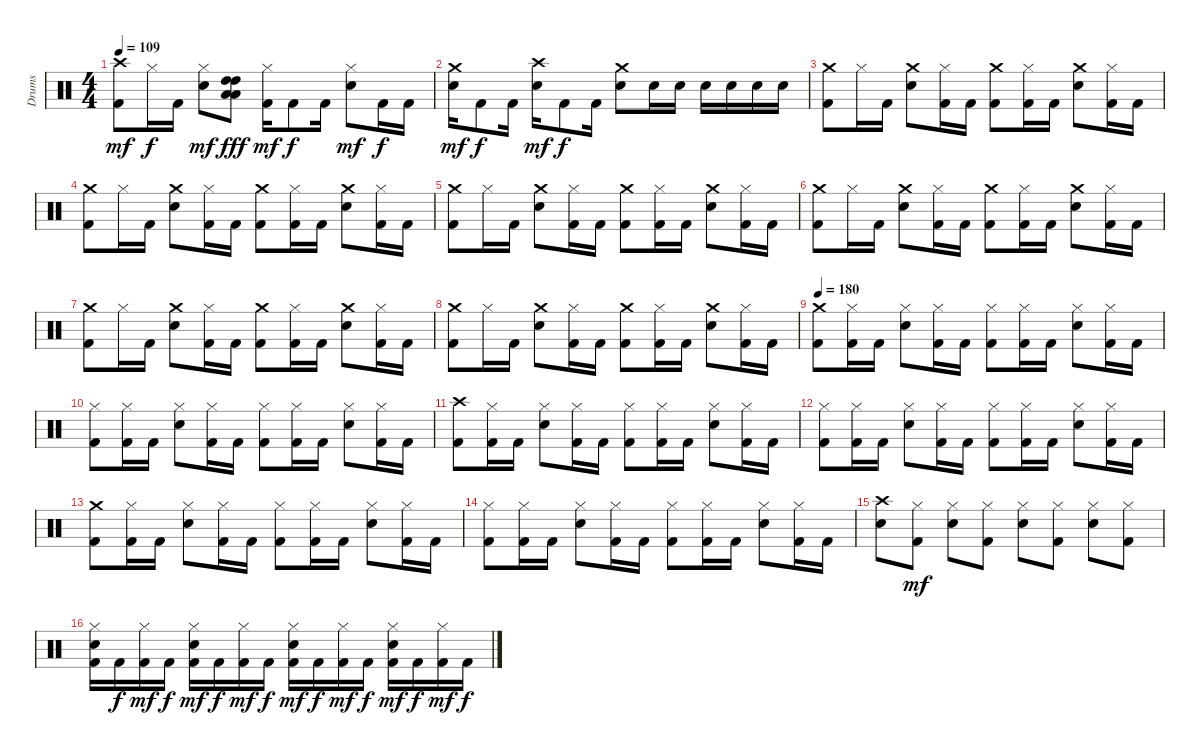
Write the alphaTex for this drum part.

\track ("Drums" "Drums") {instrument percussion}
\staff {score}
\articulation defaults
\ts (4 4)
\tempo 109
\clef neutral
\ks c
("Crash high (hit)" "Kick (hit) 2").8{dy mf} "Hi-Hat (closed)".16{dy f} "Kick (hit) 2".16 ("Hi-Hat (closed)" "Snare (hit) 2").8{dy mf} ("High Tom (hit)" "High Tom (hit)" "Low Tom (hit)" "Low Tom (hit)").8{dy fff} ("Hi-Hat (closed)" "Kick (hit) 2").16{dy mf} "Kick (hit) 2".8{dy f} "Kick (hit) 2".16 ("Hi-Hat (closed)" "Snare (hit) 2").8{dy mf} "Kick (hit) 2".16{dy f} "Kick (hit) 2".16 |
("Crash medium (hit)" "Snare (hit) 2").16{dy mf} "Kick (hit) 2".8{dy f} "Kick (hit) 2".16 ("Crash high (hit)" "Snare (hit) 2").16{dy mf} "Kick (hit) 2".8{dy f} "Kick (hit) 2".16 ("Crash medium (hit)" "Snare (hit) 2").8 "Snare (hit) 2".16 "Snare (hit) 2".16 "Snare (hit) 2".16 "Snare (hit) 2".16 "Snare (hit) 2".16 "Snare (hit) 2".16 |
("Crash medium (hit)" "Kick (hit) 2").8 "Hi-Hat (closed)".16 "Kick (hit) 2".16 ("Crash medium (hit)" "Snare (hit) 2").8 ("Hi-Hat (closed)" "Kick (hit) 2").16 "Kick (hit) 2".16 ("Crash medium (hit)" "Kick (hit) 2").8 ("Hi-Hat (closed)" "Kick (hit) 2").16 "Kick (hit) 2".16 ("Crash medium (hit)" "Snare (hit) 2").8 ("Hi-Hat (closed)" "Kick (hit) 2").16 "Kick (hit) 2".16 |
("Crash medium (hit)" "Kick (hit) 2").8 "Hi-Hat (closed)".16 "Kick (hit) 2".16 ("Crash medium (hit)" "Snare (hit) 2").8 ("Hi-Hat (closed)" "Kick (hit) 2").16 "Kick (hit) 2".16 ("Crash medium (hit)" "Kick (hit) 2").8 ("Hi-Hat (closed)" "Kick (hit) 2").16 "Kick (hit) 2".16 ("Crash medium (hit)" "Snare (hit) 2").8 ("Hi-Hat (closed)" "Kick (hit) 2").16 "Kick (hit) 2".16 |
("Crash medium (hit)" "Kick (hit) 2").8 "Hi-Hat (closed)".16 "Kick (hit) 2".16 ("Crash medium (hit)" "Snare (hit) 2").8 ("Hi-Hat (closed)" "Kick (hit) 2").16 "Kick (hit) 2".16 ("Crash medium (hit)" "Kick (hit) 2").8 ("Hi-Hat (closed)" "Kick (hit) 2").16 "Kick (hit) 2".16 ("Crash medium (hit)" "Snare (hit) 2").8 ("Hi-Hat (closed)" "Kick (hit) 2").16 "Kick (hit) 2".16 |
("Crash medium (hit)" "Kick (hit) 2").8 "Hi-Hat (closed)".16 "Kick (hit) 2".16 ("Crash medium (hit)" "Snare (hit) 2").8 ("Hi-Hat (closed)" "Kick (hit) 2").16 "Kick (hit) 2".16 ("Crash medium (hit)" "Kick (hit) 2").8 ("Hi-Hat (closed)" "Kick (hit) 2").16 "Kick (hit) 2".16 ("Crash medium (hit)" "Snare (hit) 2").8 ("Hi-Hat (closed)" "Kick (hit) 2").16 "Kick (hit) 2".16 |
("Crash medium (hit)" "Kick (hit) 2").8 "Hi-Hat (closed)".16 "Kick (hit) 2".16 ("Crash medium (hit)" "Snare (hit) 2").8 ("Hi-Hat (closed)" "Kick (hit) 2").16 "Kick (hit) 2".16 ("Crash medium (hit)" "Kick (hit) 2").8 ("Hi-Hat (closed)" "Kick (hit) 2").16 "Kick (hit) 2".16 ("Crash medium (hit)" "Snare (hit) 2").8 ("Hi-Hat (closed)" "Kick (hit) 2").16 "Kick (hit) 2".16 |
("Crash medium (hit)" "Kick (hit) 2").8 "Hi-Hat (closed)".16 "Kick (hit) 2".16 ("Crash medium (hit)" "Snare (hit) 2").8 ("Hi-Hat (closed)" "Kick (hit) 2").16 "Kick (hit) 2".16 ("Crash medium (hit)" "Kick (hit) 2").8 ("Hi-Hat (closed)" "Kick (hit) 2").16 "Kick (hit) 2".16 ("Crash medium (hit)" "Snare (hit) 2").8 ("Hi-Hat (closed)" "Kick (hit) 2").16 "Kick (hit) 2".16 |
\tempo 180
("Crash medium (hit)" "Kick (hit) 2").8 ("Hi-Hat (closed)" "Kick (hit) 2").16 "Kick (hit) 2".16 ("Hi-Hat (closed)" "Snare (hit) 2").8 ("Hi-Hat (closed)" "Kick (hit) 2").16 "Kick (hit) 2".16 ("Hi-Hat (closed)" "Kick (hit) 2").8 ("Hi-Hat (closed)" "Kick (hit) 2").16 "Kick (hit) 2".16 ("Hi-Hat (closed)" "Snare (hit) 2").8 ("Hi-Hat (closed)" "Kick (hit) 2").16 "Kick (hit) 2".16 |
("Hi-Hat (closed)" "Kick (hit) 2").8 ("Hi-Hat (closed)" "Kick (hit) 2").16 "Kick (hit) 2".16 ("Hi-Hat (closed)" "Snare (hit) 2").8 ("Hi-Hat (closed)" "Kick (hit) 2").16 "Kick (hit) 2".16 ("Hi-Hat (closed)" "Kick (hit) 2").8 ("Hi-Hat (closed)" "Kick (hit) 2").16 "Kick (hit) 2".16 ("Hi-Hat (closed)" "Snare (hit) 2").8 ("Hi-Hat (closed)" "Kick (hit) 2").16 "Kick (hit) 2".16 |
("Crash high (hit)" "Kick (hit) 2").8 ("Hi-Hat (closed)" "Kick (hit) 2").16 "Kick (hit) 2".16 ("Hi-Hat (closed)" "Snare (hit) 2").8 ("Hi-Hat (closed)" "Kick (hit) 2").16 "Kick (hit) 2".16 ("Hi-Hat (closed)" "Kick (hit) 2").8 ("Hi-Hat (closed)" "Kick (hit) 2").16 "Kick (hit) 2".16 ("Hi-Hat (closed)" "Snare (hit) 2").8 ("Hi-Hat (closed)" "Kick (hit) 2").16 "Kick (hit) 2".16 |
("Hi-Hat (closed)" "Kick (hit) 2").8 ("Hi-Hat (closed)" "Kick (hit) 2").16 "Kick (hit) 2".16 ("Hi-Hat (closed)" "Snare (hit) 2").8 ("Hi-Hat (closed)" "Kick (hit) 2").16 "Kick (hit) 2".16 ("Hi-Hat (closed)" "Kick (hit) 2").8 ("Hi-Hat (closed)" "Kick (hit) 2").16 "Kick (hit) 2".16 ("Hi-Hat (closed)" "Snare (hit) 2").8 ("Hi-Hat (closed)" "Kick (hit) 2").16 "Kick (hit) 2".16 |
("Crash medium (hit)" "Kick (hit) 2").8 ("Hi-Hat (closed)" "Kick (hit) 2").16 "Kick (hit) 2".16 ("Hi-Hat (closed)" "Snare (hit) 2").8 ("Hi-Hat (closed)" "Kick (hit) 2").16 "Kick (hit) 2".16 ("Hi-Hat (closed)" "Kick (hit) 2").8 ("Hi-Hat (closed)" "Kick (hit) 2").16 "Kick (hit) 2".16 ("Hi-Hat (closed)" "Snare (hit) 2").8 ("Hi-Hat (closed)" "Kick (hit) 2").16 "Kick (hit) 2".16 |
("Hi-Hat (closed)" "Kick (hit) 2").8 ("Hi-Hat (closed)" "Kick (hit) 2").16 "Kick (hit) 2".16 ("Hi-Hat (closed)" "Snare (hit) 2").8 ("Hi-Hat (closed)" "Kick (hit) 2").16 "Kick (hit) 2".16 ("Hi-Hat (closed)" "Kick (hit) 2").8 ("Hi-Hat (closed)" "Kick (hit) 2").16 "Kick (hit) 2".16 ("Hi-Hat (closed)" "Snare (hit) 2").8 ("Hi-Hat (closed)" "Kick (hit) 2").16 "Kick (hit) 2".16 |
("Crash high (hit)" "Snare (hit) 2").8 ("Hi-Hat (closed)" "Kick (hit) 2").8{dy mf} ("Hi-Hat (closed)" "Snare (hit) 2").8 ("Hi-Hat (closed)" "Kick (hit) 2").8 ("Hi-Hat (closed)" "Snare (hit) 2").8 ("Hi-Hat (closed)" "Kick (hit) 2").8 ("Hi-Hat (closed)" "Snare (hit) 2").8 ("Hi-Hat (closed)" "Kick (hit) 2").8 |
("Hi-Hat (closed)" "Snare (hit) 2" "Kick (hit) 2").16 "Kick (hit) 2".16{dy f} ("Hi-Hat (closed)" "Kick (hit) 2").16{dy mf} "Kick (hit) 2".16{dy f} ("Hi-Hat (closed)" "Snare (hit) 2" "Kick (hit) 2").16{dy mf} "Kick (hit) 2".16{dy f} ("Hi-Hat (closed)" "Kick (hit) 2").16{dy mf} "Kick (hit) 2".16{dy f} ("Hi-Hat (closed)" "Snare (hit) 2" "Kick (hit) 2").16{dy mf} "Kick (hit) 2".16{dy f} ("Hi-Hat (closed)" "Kick (hit) 2").16{dy mf} "Kick (hit) 2".16{dy f} ("Hi-Hat (closed)" "Snare (hit) 2" "Kick (hit) 2").16{dy mf} "Kick (hit) 2".16{dy f} ("Hi-Hat (closed)" "Kick (hit) 2").16{dy mf} "Kick (hit) 2".16{dy f}
